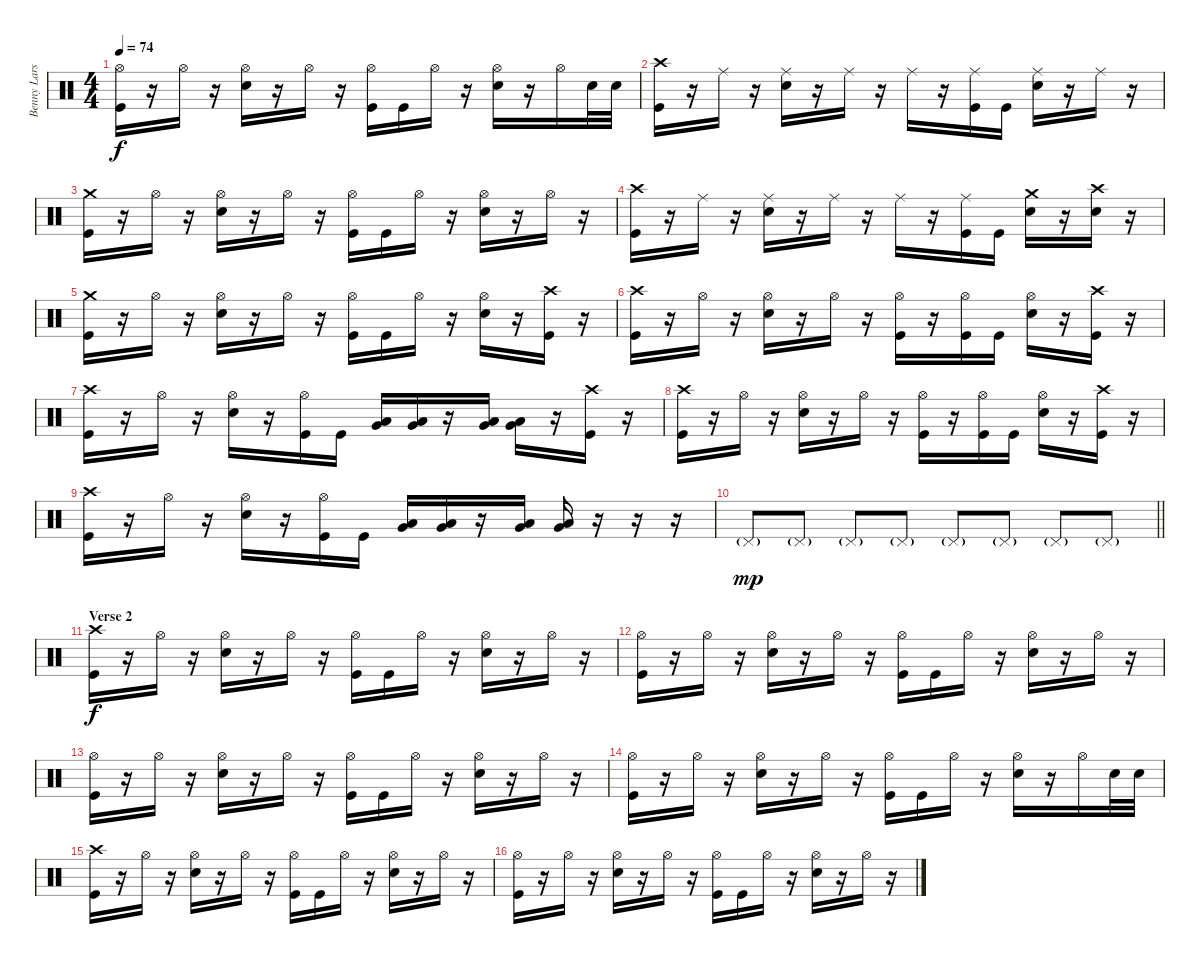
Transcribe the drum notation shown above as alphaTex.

\track ("Benny Larsson" "Benny Lars") {instrument percussion}
\staff {score}
\articulation defaults
\ts (4 4)
\tempo 74
\clef neutral
\ks c
("Hi-Hat (open)" "Kick (hit)").16{dy f} r.16 "Hi-Hat (open)".16 r.16 ("Hi-Hat (open)" "Snare (hit) 2").16 r.16 "Hi-Hat (open)".16 r.16 ("Hi-Hat (open)" "Kick (hit)").16 "Kick (hit)".16 "Hi-Hat (open)".16 r.16 ("Hi-Hat (open)" "Snare (hit) 2").16 r.16 "Hi-Hat (open)".16 "Snare (hit) 2".32 "Snare (hit) 2".32 |
("Crash high (hit)" "Kick (hit)").16 r.16 "Ride (middle)".16 r.16 ("Ride (middle)" "Snare (hit) 2").16 r.16 "Ride (middle)".16 r.16 "Ride (middle)".16 r.16 ("Ride (middle)" "Kick (hit)").16 "Kick (hit)".16 ("Ride (middle)" "Snare (hit) 2").16 r.16 "Ride (middle)".16 r.16 |
("Crash medium (hit)" "Kick (hit)").16 r.16 "Hi-Hat (open)".16 r.16 ("Hi-Hat (open)" "Snare (hit) 2").16 r.16 "Hi-Hat (open)".16 r.16 ("Hi-Hat (open)" "Kick (hit)").16 "Kick (hit)".16 "Hi-Hat (open)".16 r.16 ("Hi-Hat (open)" "Snare (hit) 2").16 r.16 "Hi-Hat (open)".16 r.16 |
("Crash high (hit)" "Kick (hit)").16 r.16 "Ride (middle)".16 r.16 ("Ride (middle)" "Snare (hit) 2").16 r.16 "Ride (middle)".16 r.16 "Ride (middle)".16 r.16 ("Ride (middle)" "Kick (hit)").16 "Kick (hit)".16 ("Crash medium (hit)" "Snare (hit) 2").16 r.16 ("Crash high (hit)" "Snare (hit) 2").16 r.16 |
("Crash medium (hit)" "Kick (hit)").16 r.16 "Hi-Hat (open)".16 r.16 ("Hi-Hat (open)" "Snare (hit) 2").16 r.16 "Hi-Hat (open)".16 r.16 ("Hi-Hat (open)" "Kick (hit)").16 "Kick (hit)".16 "Hi-Hat (open)".16 r.16 ("Hi-Hat (open)" "Snare (hit) 2").16 r.16 ("Crash high (hit)" "Kick (hit)").16 r.16 |
("Crash high (hit)" "Kick (hit)").16 r.16 "Hi-Hat (open)".16 r.16 ("Hi-Hat (open)" "Snare (hit) 2").16 r.16 "Hi-Hat (open)".16 r.16 ("Hi-Hat (open)" "Kick (hit)").16 r.16 ("Hi-Hat (open)" "Kick (hit)").16 "Kick (hit)".16 ("Hi-Hat (open)" "Snare (hit) 2").16 r.16 ("Crash high (hit)" "Kick (hit)").16 r.16 |
("Crash high (hit)" "Kick (hit)").16 r.16 "Hi-Hat (open)".16 r.16 ("Hi-Hat (open)" "Snare (hit) 2").16 r.16 ("Hi-Hat (open)" "Kick (hit)").16 "Kick (hit)".16 ("Very Low Tom (hit)" "Low Floor Tom (hit)").16 ("Very Low Tom (hit)" "Low Floor Tom (hit)").16 r.16 ("Very Low Tom (hit)" "Low Floor Tom (hit)").16 ("Very Low Tom (hit)" "Low Floor Tom (hit)").16 r.16 ("Crash high (hit)" "Kick (hit)").16 r.16 |
("Crash high (hit)" "Kick (hit)").16 r.16 "Hi-Hat (open)".16 r.16 ("Hi-Hat (open)" "Snare (hit) 2").16 r.16 "Hi-Hat (open)".16 r.16 ("Hi-Hat (open)" "Kick (hit)").16 r.16 ("Hi-Hat (open)" "Kick (hit)").16 "Kick (hit)".16 ("Hi-Hat (open)" "Snare (hit) 2").16 r.16 ("Crash high (hit)" "Kick (hit)").16 r.16 |
("Crash high (hit)" "Kick (hit)").16 r.16 "Hi-Hat (open)".16 r.16 ("Hi-Hat (open)" "Snare (hit) 2").16 r.16 ("Hi-Hat (open)" "Kick (hit)").16 "Kick (hit)".16 ("Very Low Tom (hit)" "Low Floor Tom (hit)").16 ("Very Low Tom (hit)" "Low Floor Tom (hit)").16 r.16 ("Very Low Tom (hit)" "Low Floor Tom (hit)").16 ("Very Low Tom (hit)" "Low Floor Tom (hit)").16 r.16 r.16 r.16 |
\barLineRight lightlight "Pedal Hi-Hat (hit)"{g}.8{dy mp} "Pedal Hi-Hat (hit)"{g}.8 "Pedal Hi-Hat (hit)"{g}.8 "Pedal Hi-Hat (hit)"{g}.8 "Pedal Hi-Hat (hit)"{g}.8 "Pedal Hi-Hat (hit)"{g}.8 "Pedal Hi-Hat (hit)"{g}.8 "Pedal Hi-Hat (hit)"{g}.8
|
\section ("" "Verse 2")
("Crash high (hit)" "Kick (hit)").16{dy f} r.16 "Hi-Hat (open)".16 r.16 ("Hi-Hat (open)" "Snare (hit) 2").16 r.16 "Hi-Hat (open)".16 r.16 ("Hi-Hat (open)" "Kick (hit)").16 "Kick (hit)".16 "Hi-Hat (open)".16 r.16 ("Hi-Hat (open)" "Snare (hit) 2").16 r.16 "Hi-Hat (open)".16 r.16 |
("Hi-Hat (open)" "Kick (hit)").16 r.16 "Hi-Hat (open)".16 r.16 ("Hi-Hat (open)" "Snare (hit) 2").16 r.16 "Hi-Hat (open)".16 r.16 ("Hi-Hat (open)" "Kick (hit)").16 "Kick (hit)".16 "Hi-Hat (open)".16 r.16 ("Hi-Hat (open)" "Snare (hit) 2").16 r.16 "Hi-Hat (open)".16 r.16 |
("Hi-Hat (open)" "Kick (hit)").16 r.16 "Hi-Hat (open)".16 r.16 ("Hi-Hat (open)" "Snare (hit) 2").16 r.16 "Hi-Hat (open)".16 r.16 ("Hi-Hat (open)" "Kick (hit)").16 "Kick (hit)".16 "Hi-Hat (open)".16 r.16 ("Hi-Hat (open)" "Snare (hit) 2").16 r.16 "Hi-Hat (open)".16 r.16 |
("Hi-Hat (open)" "Kick (hit)").16 r.16 "Hi-Hat (open)".16 r.16 ("Hi-Hat (open)" "Snare (hit) 2").16 r.16 "Hi-Hat (open)".16 r.16 ("Hi-Hat (open)" "Kick (hit)").16 "Kick (hit)".16 "Hi-Hat (open)".16 r.16 ("Hi-Hat (open)" "Snare (hit) 2").16 r.16 "Hi-Hat (open)".16 "Snare (hit) 2".32 "Snare (hit) 2".32 |
("Crash high (hit)" "Kick (hit)").16 r.16 "Hi-Hat (open)".16 r.16 ("Hi-Hat (open)" "Snare (hit) 2").16 r.16 "Hi-Hat (open)".16 r.16 ("Hi-Hat (open)" "Kick (hit)").16 "Kick (hit)".16 "Hi-Hat (open)".16 r.16 ("Hi-Hat (open)" "Snare (hit) 2").16 r.16 "Hi-Hat (open)".16 r.16 |
("Hi-Hat (open)" "Kick (hit)").16 r.16 "Hi-Hat (open)".16 r.16 ("Hi-Hat (open)" "Snare (hit) 2").16 r.16 "Hi-Hat (open)".16 r.16 ("Hi-Hat (open)" "Kick (hit)").16 "Kick (hit)".16 "Hi-Hat (open)".16 r.16 ("Hi-Hat (open)" "Snare (hit) 2").16 r.16 "Hi-Hat (open)".16 r.16
